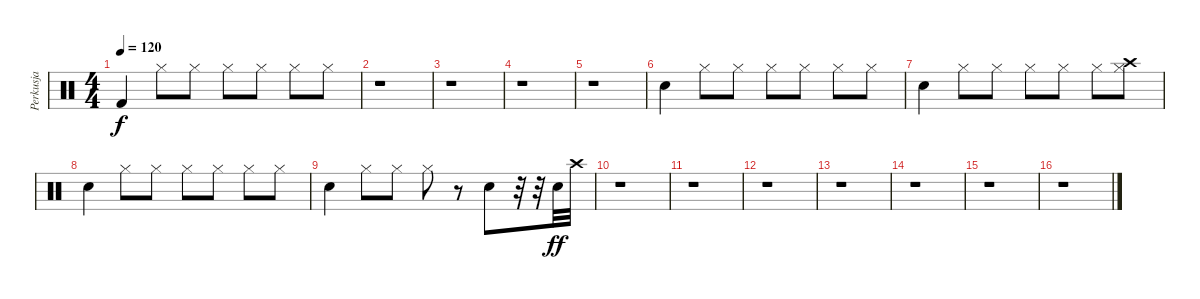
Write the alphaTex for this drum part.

\track ("Perkusja" "Perkusja") {instrument percussion}
\staff {score}
\articulation defaults
\ts (4 4)
\tempo 120
\clef neutral
\ks c "Kick (hit) 2".4{dy f} "Hi-Hat (closed)".8 "Hi-Hat (closed)".8 "Hi-Hat (closed)".8 "Hi-Hat (closed)".8 "Hi-Hat (closed)".8 "Hi-Hat (closed)".8
|
r.1 |
r.1 |
r.1 |
r.1 |
"Snare (hit) 2".4 "Hi-Hat (closed)".8 "Hi-Hat (closed)".8 "Hi-Hat (closed)".8 "Hi-Hat (closed)".8 "Hi-Hat (closed)".8 "Hi-Hat (closed)".8 |
"Snare (hit) 2".4 "Hi-Hat (closed)".8 "Hi-Hat (closed)".8 "Hi-Hat (closed)".8 "Hi-Hat (closed)".8 "Hi-Hat (closed)".8 ("Hi-Hat (closed)" "Crash high (hit)").8 |
"Snare (hit) 2".4 "Hi-Hat (closed)".8 "Hi-Hat (closed)".8 "Hi-Hat (closed)".8 "Hi-Hat (closed)".8 "Hi-Hat (closed)".8 "Hi-Hat (closed)".8 |
"Snare (hit) 2".4 "Hi-Hat (closed)".8 "Hi-Hat (closed)".8 "Hi-Hat (closed)".8 r.8 "Snare (hit) 2".8 r.32 r.32 "Electric Snare (hit)".32{dy ff} "Crash high (hit)".32 |
r.1 |
r.1 |
r.1 |
r.1 |
r.1 |
r.1 |
r.1
